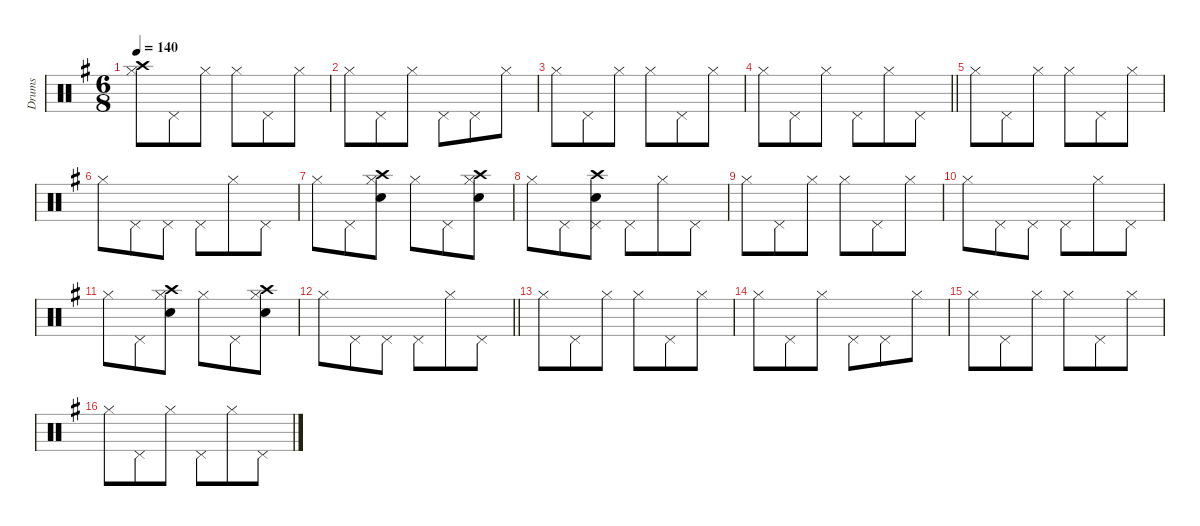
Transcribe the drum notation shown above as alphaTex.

\defaultSystemsLayout 8
\hideDynamics
\bracketExtendMode groupsimilarinstruments
\firstSystemTrackNameMode fullname
\otherSystemsTrackNameOrientation horizontal
\track ("Drums" "drm.") {defaultSystemsLayout 4 instrument percussion}
\staff {score}
\articulation defaults
\ts (6 8)
\tempo 140
\clef neutral
\ks g
("Hi-Hat (closed)"{acc forcenatural} "Crash high (hit)"{acc forcenatural}).8{dy mp beam Down} "Pedal Hi-Hat (hit)"{acc forcenatural}.8{beam Down} "Hi-Hat (closed)"{acc forcenatural}.8{beam Down} "Hi-Hat (closed)"{acc forcenatural}.8{beam Down} "Pedal Hi-Hat (hit)"{acc forcenatural}.8{beam Down} "Hi-Hat (closed)"{acc forcenatural}.8{beam Down} |
"Hi-Hat (closed)"{acc forcenatural}.8{beam Down} "Pedal Hi-Hat (hit)"{acc forcenatural}.8{beam Down} "Hi-Hat (closed)"{acc forcenatural}.8{beam Down} "Pedal Hi-Hat (hit)"{acc forcenatural}.8{beam Down} "Pedal Hi-Hat (hit)"{acc forcenatural}.8{beam Down} "Hi-Hat (closed)"{acc forcenatural}.8{beam Down} |
"Hi-Hat (closed)"{acc forcenatural}.8{beam Down} "Pedal Hi-Hat (hit)"{acc forcenatural}.8{beam Down} "Hi-Hat (closed)"{acc forcenatural}.8{beam Down} "Hi-Hat (closed)"{acc forcenatural}.8{beam Down} "Pedal Hi-Hat (hit)"{acc forcenatural}.8{beam Down} "Hi-Hat (closed)"{acc forcenatural}.8{beam Down} |
\barLineRight lightlight "Hi-Hat (closed)"{acc forcenatural}.8{beam Down} "Pedal Hi-Hat (hit)"{acc forcenatural}.8{beam Down} "Hi-Hat (closed)"{acc forcenatural}.8{beam Down} "Pedal Hi-Hat (hit)"{acc forcenatural}.8{beam Down} "Hi-Hat (closed)"{acc forcenatural}.8{beam Down} "Pedal Hi-Hat (hit)"{acc forcenatural}.8{beam Down}
|
"Hi-Hat (closed)"{acc forcenatural}.8{beam Down} "Pedal Hi-Hat (hit)"{acc forcenatural}.8{beam Down} "Hi-Hat (closed)"{acc forcenatural}.8{beam Down} "Hi-Hat (closed)"{acc forcenatural}.8{beam Down} "Pedal Hi-Hat (hit)"{acc forcenatural}.8{beam Down} "Hi-Hat (closed)"{acc forcenatural}.8{beam Down} |
"Hi-Hat (closed)"{acc forcenatural}.8{beam Down} "Pedal Hi-Hat (hit)"{acc forcenatural}.8{beam Down} "Pedal Hi-Hat (hit)"{acc forcenatural}.8{beam Down} "Pedal Hi-Hat (hit)"{acc forcenatural}.8{beam Down} "Hi-Hat (closed)"{acc forcenatural}.8{beam Down} "Pedal Hi-Hat (hit)"{acc forcenatural}.8{beam Down} |
"Hi-Hat (closed)"{acc forcenatural}.8{beam Down} "Pedal Hi-Hat (hit)"{acc forcenatural}.8{beam Down} ("Hi-Hat (closed)"{acc forcenatural} "Snare (hit) 2"{acc forcenatural} "Crash high (hit)"{acc forcenatural}).8{beam Down} "Hi-Hat (closed)"{acc forcenatural}.8{beam Down} "Pedal Hi-Hat (hit)"{acc forcenatural}.8{beam Down} ("Hi-Hat (closed)"{acc forcenatural} "Snare (hit) 2"{acc forcenatural} "Crash high (hit)"{acc forcenatural}).8{beam Down} |
"Hi-Hat (closed)"{acc forcenatural}.8{beam Down} "Pedal Hi-Hat (hit)"{acc forcenatural}.8{beam Down} ("Pedal Hi-Hat (hit)"{acc forcenatural} "Snare (hit) 2"{acc forcenatural} "Crash high (hit)"{acc forcenatural}).8{beam Down} "Pedal Hi-Hat (hit)"{acc forcenatural}.8{beam Down} "Hi-Hat (closed)"{acc forcenatural}.8{beam Down} "Pedal Hi-Hat (hit)"{acc forcenatural}.8{beam Down} |
"Hi-Hat (closed)"{acc forcenatural}.8{beam Down} "Pedal Hi-Hat (hit)"{acc forcenatural}.8{beam Down} "Hi-Hat (closed)"{acc forcenatural}.8{beam Down} "Hi-Hat (closed)"{acc forcenatural}.8{beam Down} "Pedal Hi-Hat (hit)"{acc forcenatural}.8{beam Down} "Hi-Hat (closed)"{acc forcenatural}.8{beam Down} |
"Hi-Hat (closed)"{acc forcenatural}.8{beam Down} "Pedal Hi-Hat (hit)"{acc forcenatural}.8{beam Down} "Pedal Hi-Hat (hit)"{acc forcenatural}.8{beam Down} "Pedal Hi-Hat (hit)"{acc forcenatural}.8{beam Down} "Hi-Hat (closed)"{acc forcenatural}.8{beam Down} "Pedal Hi-Hat (hit)"{acc forcenatural}.8{beam Down} |
"Hi-Hat (closed)"{acc forcenatural}.8{beam Down} "Pedal Hi-Hat (hit)"{acc forcenatural}.8{beam Down} ("Hi-Hat (closed)"{acc forcenatural} "Snare (hit) 2"{acc forcenatural} "Crash high (hit)"{acc forcenatural}).8{beam Down} "Hi-Hat (closed)"{acc forcenatural}.8{beam Down} "Pedal Hi-Hat (hit)"{acc forcenatural}.8{beam Down} ("Hi-Hat (closed)"{acc forcenatural} "Snare (hit) 2"{acc forcenatural} "Crash high (hit)"{acc forcenatural}).8{beam Down} |
\barLineRight lightlight "Hi-Hat (closed)"{acc forcenatural}.8{beam Down} "Pedal Hi-Hat (hit)"{acc forcenatural}.8{beam Down} "Pedal Hi-Hat (hit)"{acc forcenatural}.8{beam Down} "Pedal Hi-Hat (hit)"{acc forcenatural}.8{beam Down} "Hi-Hat (closed)"{acc forcenatural}.8{beam Down} "Pedal Hi-Hat (hit)"{acc forcenatural}.8{beam Down}
|
"Hi-Hat (closed)"{acc forcenatural}.8{beam Down} "Pedal Hi-Hat (hit)"{acc forcenatural}.8{beam Down} "Hi-Hat (closed)"{acc forcenatural}.8{beam Down} "Hi-Hat (closed)"{acc forcenatural}.8{beam Down} "Pedal Hi-Hat (hit)"{acc forcenatural}.8{beam Down} "Hi-Hat (closed)"{acc forcenatural}.8{beam Down} |
"Hi-Hat (closed)"{acc forcenatural}.8{beam Down} "Pedal Hi-Hat (hit)"{acc forcenatural}.8{beam Down} "Hi-Hat (closed)"{acc forcenatural}.8{beam Down} "Pedal Hi-Hat (hit)"{acc forcenatural}.8{beam Down} "Pedal Hi-Hat (hit)"{acc forcenatural}.8{beam Down} "Hi-Hat (closed)"{acc forcenatural}.8{beam Down} |
"Hi-Hat (closed)"{acc forcenatural}.8{beam Down} "Pedal Hi-Hat (hit)"{acc forcenatural}.8{beam Down} "Hi-Hat (closed)"{acc forcenatural}.8{beam Down} "Hi-Hat (closed)"{acc forcenatural}.8{beam Down} "Pedal Hi-Hat (hit)"{acc forcenatural}.8{beam Down} "Hi-Hat (closed)"{acc forcenatural}.8{beam Down} |
"Hi-Hat (closed)"{acc forcenatural}.8{beam Down} "Pedal Hi-Hat (hit)"{acc forcenatural}.8{beam Down} "Hi-Hat (closed)"{acc forcenatural}.8{beam Down} "Pedal Hi-Hat (hit)"{acc forcenatural}.8{beam Down} "Hi-Hat (closed)"{acc forcenatural}.8{beam Down} "Pedal Hi-Hat (hit)"{acc forcenatural}.8{beam Down}
